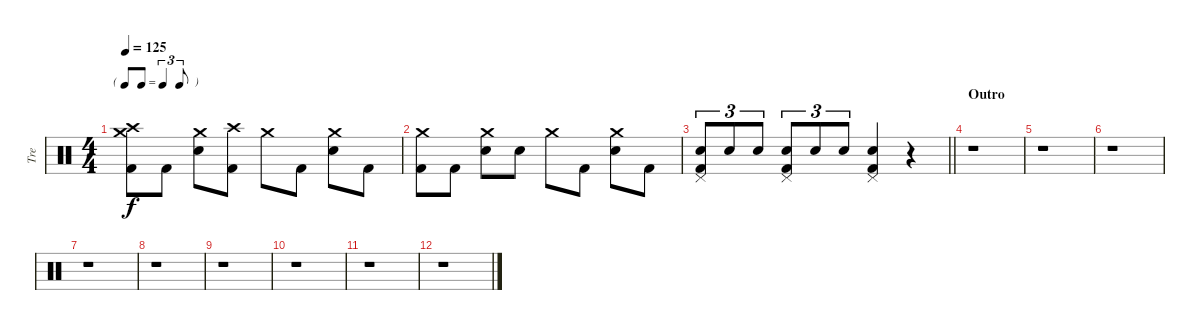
\track ("Tre" "Tre") {instrument percussion}
\staff {score}
\articulation defaults
\ts (4 4)
\tf triplet8th
\tempo 125
\clef neutral
\ks c
("Crash medium (hit)" "Crash high (hit)" "Kick (hit) 2").8{dy f} "Kick (hit) 2".8 ("Crash medium (hit)" "Snare (hit) 2").8 ("Crash high (hit)" "Kick (hit) 2").8 "Crash medium (hit)".8 "Kick (hit) 2".8 ("Crash medium (hit)" "Snare (hit) 2").8 "Kick (hit) 2".8 |
("Crash medium (hit)" "Kick (hit) 2").8 "Kick (hit) 2".8 ("Crash medium (hit)" "Snare (hit) 2").8 "Snare (hit) 2".8 "Crash medium (hit)".8 "Kick (hit) 2".8 ("Crash medium (hit)" "Snare (hit) 2").8 "Kick (hit) 2".8 |
\barLineRight lightlight
("Snare (hit) 2" "Pedal Hi-Hat (hit)" "Kick (hit) 2").8{tu (3 2)} "Snare (hit) 2".8{tu (3 2)} "Snare (hit) 2".8{tu (3 2)} ("Snare (hit) 2" "Pedal Hi-Hat (hit)" "Kick (hit) 2").8{tu (3 2)} "Snare (hit) 2".8{tu (3 2)} "Snare (hit) 2".8{tu (3 2)} ("Snare (hit) 2" "Pedal Hi-Hat (hit)" "Kick (hit) 2").4 r.4 |
\section ("" "Outro")
r.1 |
r.1 |
r.1 |
r.1 |
r.1 |
r.1 |
r.1 |
r.1 |
r.1
